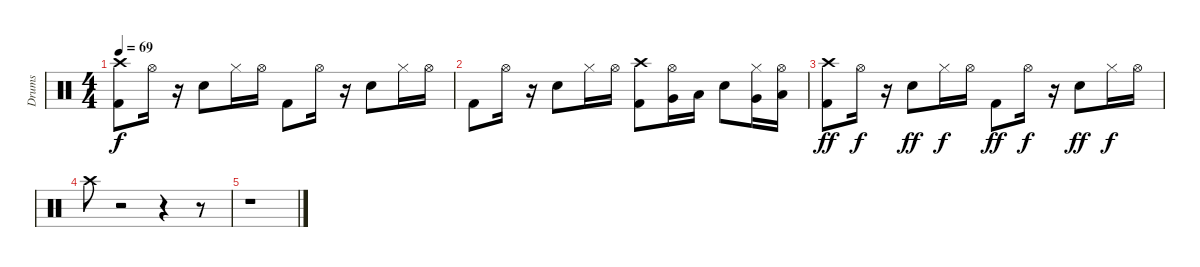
\track ("Drums" "Drums") {instrument percussion}
\staff {score}
\articulation defaults
\ts (4 4)
\tempo 69
\clef neutral
\ks c
("Crash high (hit)" "Kick (hit) 2").8{dy f} "Hi-Hat (open)".16 r.16 "Snare (hit) 2".8 "Hi-Hat (closed)".16 "Hi-Hat (open)".16 "Kick (hit) 2".8 "Hi-Hat (open)".16 r.16 "Snare (hit) 2".8 "Hi-Hat (closed)".16 "Hi-Hat (open)".16 |
"Kick (hit) 2".8 "Hi-Hat (open)".16 r.16 "Snare (hit) 2".8 "Hi-Hat (closed)".16 "Hi-Hat (open)".16 ("Crash high (hit)" "Kick (hit) 2").8 ("Very Low Tom (hit)" "Hi-Hat (open)").16 "Low Floor Tom (hit)".16 "Snare (hit) 2".8 ("Very Low Tom (hit)" "Hi-Hat (closed)").16 ("Low Tom (hit)" "Hi-Hat (open)").16 |
("Crash high (hit)" "Kick (hit) 2").8{dy ff} "Hi-Hat (open)".16{dy f} r.16 "Snare (hit) 2".8{dy ff} "Hi-Hat (closed)".16{dy f} "Hi-Hat (open)".16 "Kick (hit) 2".8{dy ff} "Hi-Hat (open)".16{dy f} r.16 "Snare (hit) 2".8{dy ff} "Hi-Hat (closed)".16{dy f} "Hi-Hat (open)".16 |
"Crash high (hit)".8 r.2 r.4 r.8 |
r.1
